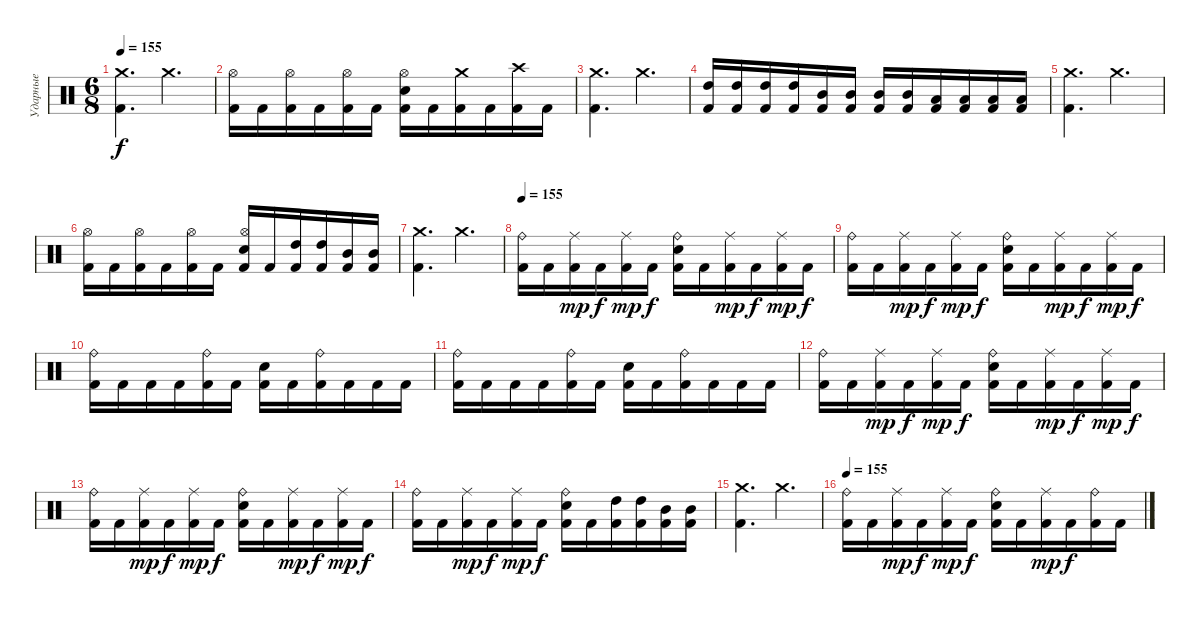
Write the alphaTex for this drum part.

\track ("Ударные" "Ударные") {instrument percussion}
\staff {score}
\articulation defaults
\ts (6 8)
\tempo 155
\clef neutral
\ks c
("Kick (hit) 2" "Crash medium (hit)").4{d dy f} "Crash medium (hit)".4{d} |
("Kick (hit) 2" "Hi-Hat (open)").16 "Kick (hit) 2".16 ("Kick (hit) 2" "Hi-Hat (open)").16 "Kick (hit) 2".16 ("Kick (hit) 2" "Hi-Hat (open)").16 "Kick (hit) 2".16 ("Kick (hit) 2" "Electric Snare (hit)" "Hi-Hat (open)").16 "Kick (hit) 2".16 ("Kick (hit) 2" "Crash medium (hit)").16 "Kick (hit) 2".16 ("Kick (hit) 2" "Crash high (hit)").16 "Kick (hit) 2".16 |
("Kick (hit) 2" "Crash medium (hit)").4{d} "Crash medium (hit)".4{d} |
("Kick (hit) 2" "High Tom (hit)").16 ("Kick (hit) 2" "High Tom (hit)").16 ("Kick (hit) 2" "High Tom (hit)").16 ("Kick (hit) 2" "High Tom (hit)").16 ("Kick (hit) 2" "Mid Tom (hit)").16 ("Kick (hit) 2" "Mid Tom (hit)").16 ("Kick (hit) 2" "Mid Tom (hit)").16 ("Kick (hit) 2" "Mid Tom (hit)").16 ("Kick (hit) 2" "Low Tom (hit)").16 ("Kick (hit) 2" "Low Tom (hit)").16 ("Kick (hit) 2" "Low Tom (hit)").16 ("Kick (hit) 2" "Low Tom (hit)").16 |
("Kick (hit) 2" "Crash medium (hit)").4{d} "Crash medium (hit)".4{d} |
("Kick (hit) 2" "Hi-Hat (open)").16 "Kick (hit) 2".16 ("Kick (hit) 2" "Hi-Hat (open)").16 "Kick (hit) 2".16 ("Kick (hit) 2" "Hi-Hat (open)").16 "Kick (hit) 2".16 ("Kick (hit) 2" "Electric Snare (hit)" "Hi-Hat (open)").16 "Kick (hit) 2".16 ("Kick (hit) 2" "High Tom (hit)").16 ("Kick (hit) 2" "High Tom (hit)").16 ("Kick (hit) 2" "Mid Tom (hit)").16 ("Kick (hit) 2" "Mid Tom (hit)").16 |
("Kick (hit) 2" "Crash medium (hit)").4{d} "Crash medium (hit)".4{d} |
\tempo 155
("Kick (hit) 2" "Ride (bell)").16 "Kick (hit) 2".16 ("Kick (hit) 2" "Ride (middle)").16{dy mp} "Kick (hit) 2".16{dy f} ("Kick (hit) 2" "Ride (middle)").16{dy mp} "Kick (hit) 2".16{dy f} ("Kick (hit) 2" "Electric Snare (hit)" "Ride (bell)").16 "Kick (hit) 2".16 ("Kick (hit) 2" "Ride (middle)").16{dy mp} "Kick (hit) 2".16{dy f} ("Kick (hit) 2" "Ride (middle)").16{dy mp} "Kick (hit) 2".16{dy f} |
("Kick (hit) 2" "Ride (bell)").16 "Kick (hit) 2".16 ("Kick (hit) 2" "Ride (middle)").16{dy mp} "Kick (hit) 2".16{dy f} ("Kick (hit) 2" "Ride (middle)").16{dy mp} "Kick (hit) 2".16{dy f} ("Kick (hit) 2" "Electric Snare (hit)" "Ride (bell)").16 "Kick (hit) 2".16 ("Kick (hit) 2" "Ride (middle)").16{dy mp} "Kick (hit) 2".16{dy f} ("Kick (hit) 2" "Ride (middle)").16{dy mp} "Kick (hit) 2".16{dy f} |
("Kick (hit) 2" "Ride (bell)").16 "Kick (hit) 2".16 "Kick (hit) 2".16 "Kick (hit) 2".16 ("Kick (hit) 2" "Ride (bell)").16 "Kick (hit) 2".16 ("Kick (hit) 2" "Electric Snare (hit)").16 "Kick (hit) 2".16 ("Kick (hit) 2" "Ride (bell)").16 "Kick (hit) 2".16 "Kick (hit) 2".16 "Kick (hit) 2".16 |
("Kick (hit) 2" "Ride (bell)").16 "Kick (hit) 2".16 "Kick (hit) 2".16 "Kick (hit) 2".16 ("Kick (hit) 2" "Ride (bell)").16 "Kick (hit) 2".16 ("Kick (hit) 2" "Electric Snare (hit)").16 "Kick (hit) 2".16 ("Kick (hit) 2" "Ride (bell)").16 "Kick (hit) 2".16 "Kick (hit) 2".16 "Kick (hit) 2".16 |
("Kick (hit) 2" "Ride (bell)").16 "Kick (hit) 2".16 ("Kick (hit) 2" "Ride (middle)").16{dy mp} "Kick (hit) 2".16{dy f} ("Kick (hit) 2" "Ride (middle)").16{dy mp} "Kick (hit) 2".16{dy f} ("Kick (hit) 2" "Electric Snare (hit)" "Ride (bell)").16 "Kick (hit) 2".16 ("Kick (hit) 2" "Ride (middle)").16{dy mp} "Kick (hit) 2".16{dy f} ("Kick (hit) 2" "Ride (middle)").16{dy mp} "Kick (hit) 2".16{dy f} |
("Kick (hit) 2" "Ride (bell)").16 "Kick (hit) 2".16 ("Kick (hit) 2" "Ride (middle)").16{dy mp} "Kick (hit) 2".16{dy f} ("Kick (hit) 2" "Ride (middle)").16{dy mp} "Kick (hit) 2".16{dy f} ("Kick (hit) 2" "Electric Snare (hit)" "Ride (bell)").16 "Kick (hit) 2".16 ("Kick (hit) 2" "Ride (middle)").16{dy mp} "Kick (hit) 2".16{dy f} ("Kick (hit) 2" "Ride (middle)").16{dy mp} "Kick (hit) 2".16{dy f} |
("Kick (hit) 2" "Ride (bell)").16 "Kick (hit) 2".16 ("Kick (hit) 2" "Ride (middle)").16{dy mp} "Kick (hit) 2".16{dy f} ("Kick (hit) 2" "Ride (middle)").16{dy mp} "Kick (hit) 2".16{dy f} ("Kick (hit) 2" "Electric Snare (hit)" "Ride (bell)").16 "Kick (hit) 2".16 ("Kick (hit) 2" "High Tom (hit)").16 ("Kick (hit) 2" "High Tom (hit)").16 ("Kick (hit) 2" "Mid Tom (hit)").16 ("Kick (hit) 2" "Mid Tom (hit)").16 |
("Kick (hit) 2" "Crash medium (hit)").4{d} "Crash medium (hit)".4{d} |
\tempo 155
("Kick (hit) 2" "Ride (bell)").16 "Kick (hit) 2".16 ("Kick (hit) 2" "Ride (middle)").16{dy mp} "Kick (hit) 2".16{dy f} ("Kick (hit) 2" "Ride (middle)").16{dy mp} "Kick (hit) 2".16{dy f} ("Kick (hit) 2" "Electric Snare (hit)" "Ride (bell)").16 "Kick (hit) 2".16 ("Kick (hit) 2" "Ride (middle)").16{dy mp} "Kick (hit) 2".16{dy f} ("Kick (hit) 2" "Ride (bell)").16 "Kick (hit) 2".16
